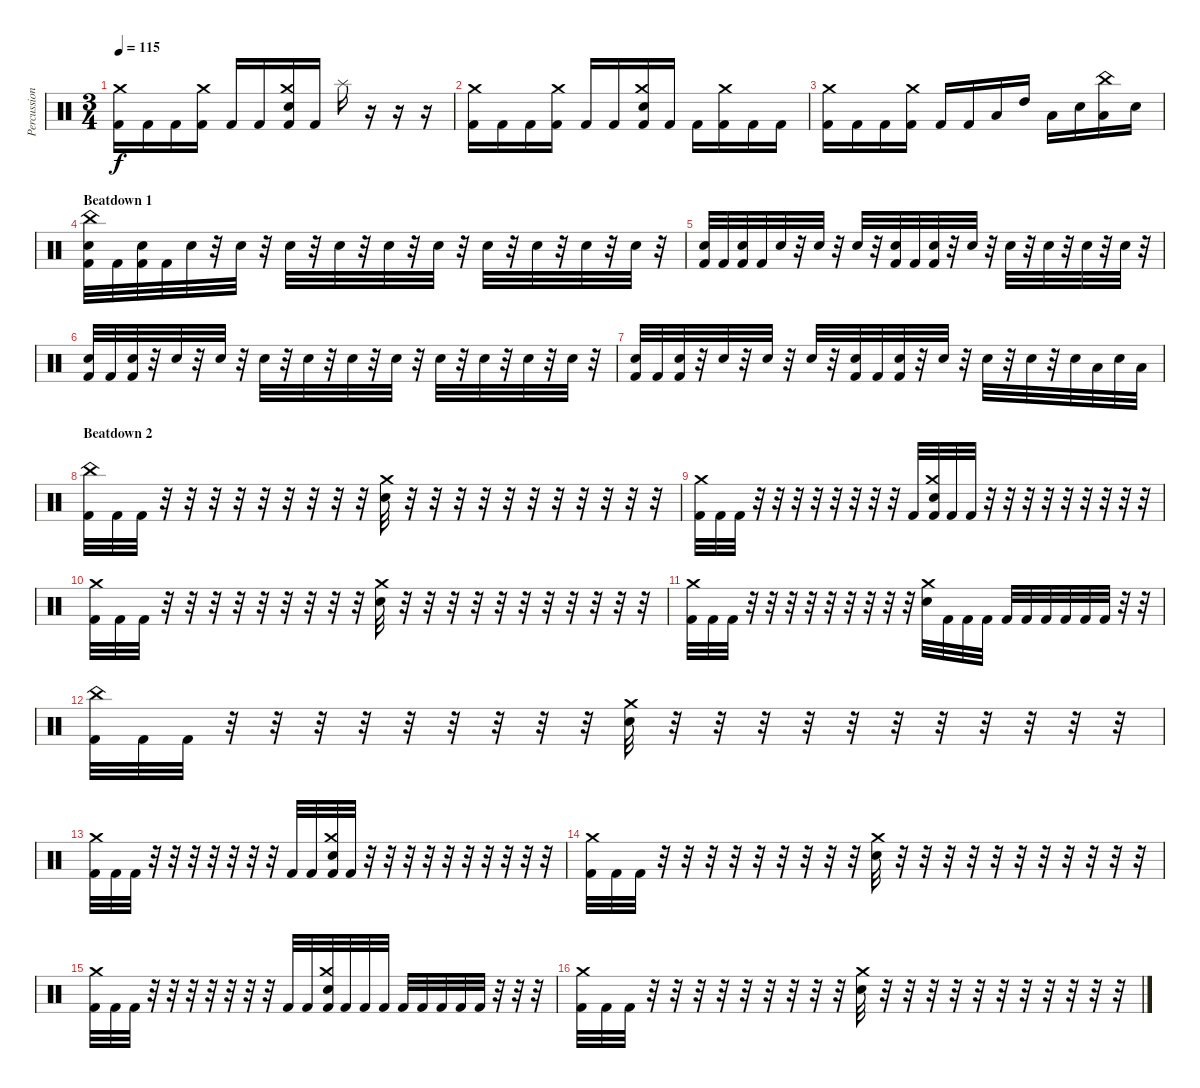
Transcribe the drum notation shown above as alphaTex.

\track ("Percussion" "Percussion") {instrument percussion}
\staff {score}
\articulation defaults
\ts (3 4)
\tempo 115
\clef neutral
\ks c
("Kick (hit) 2" "Crash medium (hit)").16{dy f} "Kick (hit) 2".16 "Kick (hit) 2".16 ("Kick (hit) 2" "Crash medium (hit)").16 "Kick (hit) 2".16 "Kick (hit) 2".16 ("Kick (hit) 2" "Electric Snare (hit)" "Crash medium (hit)").16 "Kick (hit) 2".16 "Splash (hit)".16 r.16 r.16 r.16 |
("Kick (hit) 2" "Crash medium (hit)").16 "Kick (hit) 2".16 "Kick (hit) 2".16 ("Kick (hit) 2" "Crash medium (hit)").16 "Kick (hit) 2".16 "Kick (hit) 2".16 ("Kick (hit) 2" "Electric Snare (hit)" "Crash medium (hit)").16 "Kick (hit) 2".16 "Kick (hit) 2".16 ("Kick (hit) 2" "Crash medium (hit)").16 "Kick (hit) 2".16 "Kick (hit) 2".16 |
("Kick (hit) 2" "Crash medium (hit)").16 "Kick (hit) 2".16 "Kick (hit) 2".16 ("Kick (hit) 2" "Crash medium (hit)").16 "Kick (hit) 2".16 "Kick (hit) 2".16 "Low Tom (hit)".16 "High Tom (hit)".16 "Low Tom (hit)".16 "Electric Snare (hit)".16 ("Low Tom (hit)" "China (hit)").16 "Electric Snare (hit)".16 |
\section ("" "Beatdown 1")
("Kick (hit) 2" "Electric Snare (hit)" "China (hit)").32 "Kick (hit) 2".32 ("Kick (hit) 2" "Electric Snare (hit)").32 "Kick (hit) 2".32 "Electric Snare (hit)".32 r.32 "Electric Snare (hit)".32 r.32 "Electric Snare (hit)".32 r.32 "Electric Snare (hit)".32 r.32 "Electric Snare (hit)".32 r.32 "Electric Snare (hit)".32 r.32 "Electric Snare (hit)".32 r.32 "Electric Snare (hit)".32 r.32 "Electric Snare (hit)".32 r.32 "Electric Snare (hit)".32 r.32 |
("Kick (hit) 2" "Electric Snare (hit)").32 "Kick (hit) 2".32 ("Kick (hit) 2" "Electric Snare (hit)").32 "Kick (hit) 2".32 "Electric Snare (hit)".32 r.32 "Electric Snare (hit)".32 r.32 "Electric Snare (hit)".32 r.32 ("Kick (hit) 2" "Electric Snare (hit)").32 "Kick (hit) 2".32 ("Kick (hit) 2" "Electric Snare (hit)").32 r.32 "Electric Snare (hit)".32 r.32 "Electric Snare (hit)".32 r.32 "Electric Snare (hit)".32 r.32 "Electric Snare (hit)".32 r.32 "Electric Snare (hit)".32 r.32 |
("Kick (hit) 2" "Electric Snare (hit)").32 "Kick (hit) 2".32 ("Kick (hit) 2" "Electric Snare (hit)").32 r.32 "Electric Snare (hit)".32 r.32 "Electric Snare (hit)".32 r.32 "Electric Snare (hit)".32 r.32 "Electric Snare (hit)".32 r.32 "Electric Snare (hit)".32 r.32 "Electric Snare (hit)".32 r.32 "Electric Snare (hit)".32 r.32 "Electric Snare (hit)".32 r.32 "Electric Snare (hit)".32 r.32 "Electric Snare (hit)".32 r.32 |
("Kick (hit) 2" "Electric Snare (hit)").32 "Kick (hit) 2".32 ("Kick (hit) 2" "Electric Snare (hit)").32 r.32 "Electric Snare (hit)".32 r.32 "Electric Snare (hit)".32 r.32 "Electric Snare (hit)".32 r.32 ("Kick (hit) 2" "Electric Snare (hit)").32 "Kick (hit) 2".32 ("Kick (hit) 2" "Electric Snare (hit)").32 r.32 "Electric Snare (hit)".32 r.32 "Electric Snare (hit)".32 r.32 "Electric Snare (hit)".32 r.32 "Electric Snare (hit)".32 "Low Floor Tom (hit)".32 "Electric Snare (hit)".32 "Low Floor Tom (hit)".32 |
\section ("" "Beatdown 2")
("China (hit)" "Kick (hit) 2").32 "Kick (hit) 2".32 "Kick (hit) 2".32 r.32 r.32 r.32 r.32 r.32 r.32 r.32 r.32 r.32 ("Crash medium (hit)" "Electric Snare (hit)").32 r.32 r.32 r.32 r.32 r.32 r.32 r.32 r.32 r.32 r.32 r.32 |
("Crash medium (hit)" "Kick (hit) 2").32 "Kick (hit) 2".32 "Kick (hit) 2".32 r.32 r.32 r.32 r.32 r.32 r.32 r.32 r.32 "Kick (hit) 2".32 ("Crash medium (hit)" "Electric Snare (hit)" "Kick (hit) 2").32 "Kick (hit) 2".32 "Kick (hit) 2".32 r.32 r.32 r.32 r.32 r.32 r.32 r.32 r.32 r.32 |
("Crash medium (hit)" "Kick (hit) 2").32 "Kick (hit) 2".32 "Kick (hit) 2".32 r.32 r.32 r.32 r.32 r.32 r.32 r.32 r.32 r.32 ("Crash medium (hit)" "Electric Snare (hit)").32 r.32 r.32 r.32 r.32 r.32 r.32 r.32 r.32 r.32 r.32 r.32 |
("Crash medium (hit)" "Kick (hit) 2").32 "Kick (hit) 2".32 "Kick (hit) 2".32 r.32 r.32 r.32 r.32 r.32 r.32 r.32 r.32 r.32 ("Crash medium (hit)" "Electric Snare (hit)").32 "Kick (hit) 2".32 "Kick (hit) 2".32 "Kick (hit) 2".32 "Kick (hit) 2".32 "Kick (hit) 2".32 "Kick (hit) 2".32 "Kick (hit) 2".32 "Kick (hit) 2".32 "Kick (hit) 2".32 r.32 r.32 |
("China (hit)" "Kick (hit) 2").32 "Kick (hit) 2".32 "Kick (hit) 2".32 r.32 r.32 r.32 r.32 r.32 r.32 r.32 r.32 r.32 ("Crash medium (hit)" "Electric Snare (hit)").32 r.32 r.32 r.32 r.32 r.32 r.32 r.32 r.32 r.32 r.32 r.32 |
("Crash medium (hit)" "Kick (hit) 2").32 "Kick (hit) 2".32 "Kick (hit) 2".32 r.32 r.32 r.32 r.32 r.32 r.32 r.32 "Kick (hit) 2".32 "Kick (hit) 2".32 ("Crash medium (hit)" "Electric Snare (hit)" "Kick (hit) 2").32 "Kick (hit) 2".32 r.32 r.32 r.32 r.32 r.32 r.32 r.32 r.32 r.32 r.32 |
("Crash medium (hit)" "Kick (hit) 2").32 "Kick (hit) 2".32 "Kick (hit) 2".32 r.32 r.32 r.32 r.32 r.32 r.32 r.32 r.32 r.32 ("Crash medium (hit)" "Electric Snare (hit)").32 r.32 r.32 r.32 r.32 r.32 r.32 r.32 r.32 r.32 r.32 r.32 |
("Crash medium (hit)" "Kick (hit) 2").32 "Kick (hit) 2".32 "Kick (hit) 2".32 r.32 r.32 r.32 r.32 r.32 r.32 r.32 "Kick (hit) 2".32 "Kick (hit) 2".32 ("Crash medium (hit)" "Electric Snare (hit)" "Kick (hit) 2").32 "Kick (hit) 2".32 "Kick (hit) 2".32 "Kick (hit) 2".32 "Kick (hit) 2".32 "Kick (hit) 2".32 "Kick (hit) 2".32 "Kick (hit) 2".32 "Kick (hit) 2".32 r.32 r.32 r.32 |
("Crash medium (hit)" "Kick (hit) 2").32 "Kick (hit) 2".32 "Kick (hit) 2".32 r.32 r.32 r.32 r.32 r.32 r.32 r.32 r.32 r.32 ("Crash medium (hit)" "Electric Snare (hit)").32 r.32 r.32 r.32 r.32 r.32 r.32 r.32 r.32 r.32 r.32 r.32
